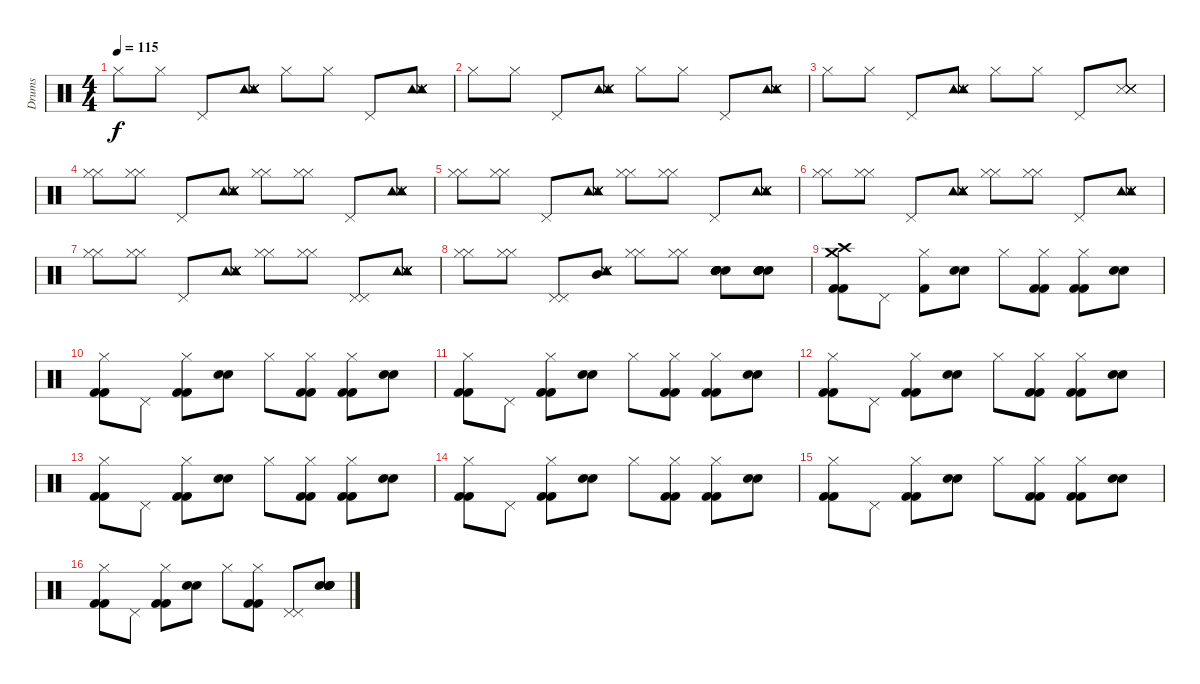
\track ("Drums" "Drums") {instrument percussion}
\staff {score}
\articulation defaults
\ts (4 4)
\tempo 115
\clef neutral
\ks c "Hi-Hat (closed)".8{dy f} "Hi-Hat (closed)".8 "Pedal Hi-Hat (hit)".8
("Tambourine (hit)" "Tambourine (hit)" "Snare (side stick) 3" "Snare (side stick) 3" "Snare (side stick) 3" "Snare (side stick) 3").8 "Hi-Hat (closed)".8 "Hi-Hat (closed)".8 "Pedal Hi-Hat (hit)".8 ("Tambourine (hit)" "Tambourine (hit)" "Snare (side stick) 3" "Snare (side stick) 3" "Snare (side stick) 3" "Snare (side stick) 3").8 |
"Hi-Hat (closed)".8 "Hi-Hat (closed)".8 "Pedal Hi-Hat (hit)".8 ("Tambourine (hit)" "Tambourine (hit)" "Snare (side stick) 3" "Snare (side stick) 3" "Snare (side stick) 3" "Snare (side stick) 3").8 "Hi-Hat (closed)".8 "Hi-Hat (closed)".8 "Pedal Hi-Hat (hit)".8 ("Tambourine (hit)" "Tambourine (hit)" "Snare (side stick) 3" "Snare (side stick) 3" "Snare (side stick) 3" "Snare (side stick) 3").8 |
"Hi-Hat (closed)".8 "Hi-Hat (closed)".8 "Pedal Hi-Hat (hit)".8 ("Tambourine (hit)" "Tambourine (hit)" "Snare (side stick) 3" "Snare (side stick) 3" "Snare (side stick) 3" "Snare (side stick) 3").8 "Hi-Hat (closed)".8 "Hi-Hat (closed)".8 "Pedal Hi-Hat (hit)".8 ("Snare (side stick) 3" "Snare (side stick) 3" "Snare (side stick) 3" "Snare (side stick) 3" "Snare (side stick) 3").8 |
("Hi-Hat (closed)" "Hi-Hat (closed)").8 ("Hi-Hat (closed)" "Hi-Hat (closed)").8 "Pedal Hi-Hat (hit)".8 ("Tambourine (hit)" "Tambourine (hit)" "Snare (side stick) 3" "Snare (side stick) 3" "Snare (side stick) 3" "Snare (side stick) 3").8 ("Hi-Hat (closed)" "Hi-Hat (closed)").8 ("Hi-Hat (closed)" "Hi-Hat (closed)").8 "Pedal Hi-Hat (hit)".8 ("Tambourine (hit)" "Tambourine (hit)" "Snare (side stick) 3" "Snare (side stick) 3" "Snare (side stick) 3" "Snare (side stick) 3").8 |
("Hi-Hat (closed)" "Hi-Hat (closed)").8 ("Hi-Hat (closed)" "Hi-Hat (closed)").8 "Pedal Hi-Hat (hit)".8 ("Tambourine (hit)" "Tambourine (hit)" "Snare (side stick) 3" "Snare (side stick) 3" "Snare (side stick) 3" "Snare (side stick) 3").8 ("Hi-Hat (closed)" "Hi-Hat (closed)").8 ("Hi-Hat (closed)" "Hi-Hat (closed)").8 "Pedal Hi-Hat (hit)".8 ("Tambourine (hit)" "Tambourine (hit)" "Snare (side stick) 3" "Snare (side stick) 3" "Snare (side stick) 3" "Snare (side stick) 3").8 |
("Hi-Hat (closed)" "Hi-Hat (closed)").8 ("Hi-Hat (closed)" "Hi-Hat (closed)").8 "Pedal Hi-Hat (hit)".8 ("Tambourine (hit)" "Tambourine (hit)" "Snare (side stick) 3" "Snare (side stick) 3" "Snare (side stick) 3" "Snare (side stick) 3").8 ("Hi-Hat (closed)" "Hi-Hat (closed)").8 ("Hi-Hat (closed)" "Hi-Hat (closed)").8 "Pedal Hi-Hat (hit)".8 ("Tambourine (hit)" "Tambourine (hit)" "Snare (side stick) 3" "Snare (side stick) 3" "Snare (side stick) 3" "Snare (side stick) 3").8 |
("Hi-Hat (closed)" "Hi-Hat (closed)").8 ("Hi-Hat (closed)" "Hi-Hat (closed)").8 "Pedal Hi-Hat (hit)".8 ("Tambourine (hit)" "Tambourine (hit)" "Snare (side stick) 3" "Snare (side stick) 3" "Snare (side stick) 3" "Snare (side stick) 3").8 ("Hi-Hat (closed)" "Hi-Hat (closed)").8 ("Hi-Hat (closed)" "Hi-Hat (closed)").8 ("Pedal Hi-Hat (hit)" "Pedal Hi-Hat (hit)").8 ("Tambourine (hit)" "Tambourine (hit)" "Snare (side stick) 3" "Snare (side stick) 3" "Snare (side stick) 3" "Snare (side stick) 3").8 |
("Hi-Hat (closed)" "Hi-Hat (closed)").8 ("Hi-Hat (closed)" "Hi-Hat (closed)").8 ("Pedal Hi-Hat (hit)" "Pedal Hi-Hat (hit)").8 ("Tambourine (hit)" "Tambourine (hit)" "Snare (side stick) 3" "Snare (side stick) 3" "Mid Tom (hit)" "Snare (side stick) 3").8 ("Hi-Hat (closed)" "Hi-Hat (closed)").8 ("Hi-Hat (closed)" "Hi-Hat (closed)").8 ("Snare (hit) 2" "Snare (hit) 2" "Snare (hit) 2" "Snare (hit) 2" "Snare (hit) 2").8 ("Snare (hit) 2" "Snare (hit) 2" "Snare (hit) 2" "Snare (hit) 2" "Snare (hit) 2").8 |
("Crash medium (hit)" "Crash high (hit)" "Kick (hit) 2" "Kick (hit) 2").8 "Pedal Hi-Hat (hit)".8 ("Hi-Hat (closed)" "Kick (hit) 2").8 ("Snare (hit) 2" "Snare (hit) 2").8 "Hi-Hat (closed)".8 ("Hi-Hat (closed)" "Kick (hit) 2" "Kick (hit) 2").8 ("Hi-Hat (closed)" "Kick (hit) 2" "Kick (hit) 2").8 ("Snare (hit) 2" "Snare (hit) 2").8 |
("Hi-Hat (closed)" "Kick (hit) 2" "Kick (hit) 2").8 "Pedal Hi-Hat (hit)".8 ("Hi-Hat (closed)" "Kick (hit) 2" "Kick (hit) 2").8 ("Snare (hit) 2" "Snare (hit) 2").8 "Hi-Hat (closed)".8 ("Hi-Hat (closed)" "Kick (hit) 2" "Kick (hit) 2").8 ("Hi-Hat (closed)" "Kick (hit) 2" "Kick (hit) 2").8 ("Snare (hit) 2" "Snare (hit) 2").8 |
("Hi-Hat (closed)" "Kick (hit) 2" "Kick (hit) 2").8 "Pedal Hi-Hat (hit)".8 ("Hi-Hat (closed)" "Kick (hit) 2" "Kick (hit) 2").8 ("Snare (hit) 2" "Snare (hit) 2").8 "Hi-Hat (closed)".8 ("Hi-Hat (closed)" "Kick (hit) 2" "Kick (hit) 2").8 ("Hi-Hat (closed)" "Kick (hit) 2" "Kick (hit) 2").8 ("Snare (hit) 2" "Snare (hit) 2").8 |
("Hi-Hat (closed)" "Kick (hit) 2" "Kick (hit) 2").8 "Pedal Hi-Hat (hit)".8 ("Hi-Hat (closed)" "Kick (hit) 2" "Kick (hit) 2").8 ("Snare (hit) 2" "Snare (hit) 2").8 "Hi-Hat (closed)".8 ("Hi-Hat (closed)" "Kick (hit) 2" "Kick (hit) 2").8 ("Hi-Hat (closed)" "Kick (hit) 2" "Kick (hit) 2").8 ("Snare (hit) 2" "Snare (hit) 2").8 |
("Hi-Hat (closed)" "Kick (hit) 2" "Kick (hit) 2").8 "Pedal Hi-Hat (hit)".8 ("Hi-Hat (closed)" "Kick (hit) 2" "Kick (hit) 2").8 ("Snare (hit) 2" "Snare (hit) 2").8 "Hi-Hat (closed)".8 ("Hi-Hat (closed)" "Kick (hit) 2" "Kick (hit) 2").8 ("Hi-Hat (closed)" "Kick (hit) 2" "Kick (hit) 2").8 ("Snare (hit) 2" "Snare (hit) 2").8 |
("Hi-Hat (closed)" "Kick (hit) 2" "Kick (hit) 2").8 "Pedal Hi-Hat (hit)".8 ("Hi-Hat (closed)" "Kick (hit) 2" "Kick (hit) 2").8 ("Snare (hit) 2" "Snare (hit) 2").8 "Hi-Hat (closed)".8 ("Hi-Hat (closed)" "Kick (hit) 2" "Kick (hit) 2").8 ("Hi-Hat (closed)" "Kick (hit) 2" "Kick (hit) 2").8 ("Snare (hit) 2" "Snare (hit) 2").8 |
("Hi-Hat (closed)" "Kick (hit) 2" "Kick (hit) 2").8 "Pedal Hi-Hat (hit)".8 ("Hi-Hat (closed)" "Kick (hit) 2" "Kick (hit) 2").8 ("Snare (hit) 2" "Snare (hit) 2").8 "Hi-Hat (closed)".8 ("Hi-Hat (closed)" "Kick (hit) 2" "Kick (hit) 2").8 ("Hi-Hat (closed)" "Kick (hit) 2" "Kick (hit) 2").8 ("Snare (hit) 2" "Snare (hit) 2").8 |
("Hi-Hat (closed)" "Kick (hit) 2" "Kick (hit) 2").8 "Pedal Hi-Hat (hit)".8 ("Hi-Hat (closed)" "Kick (hit) 2" "Kick (hit) 2").8 ("Snare (hit) 2" "Snare (hit) 2").8 "Hi-Hat (closed)".8 ("Hi-Hat (closed)" "Kick (hit) 2" "Kick (hit) 2").8 ("Pedal Hi-Hat (hit)" "Pedal Hi-Hat (hit)").8 ("Snare (hit) 2" "Snare (hit) 2" "Snare (hit) 2" "Snare (hit) 2").8
